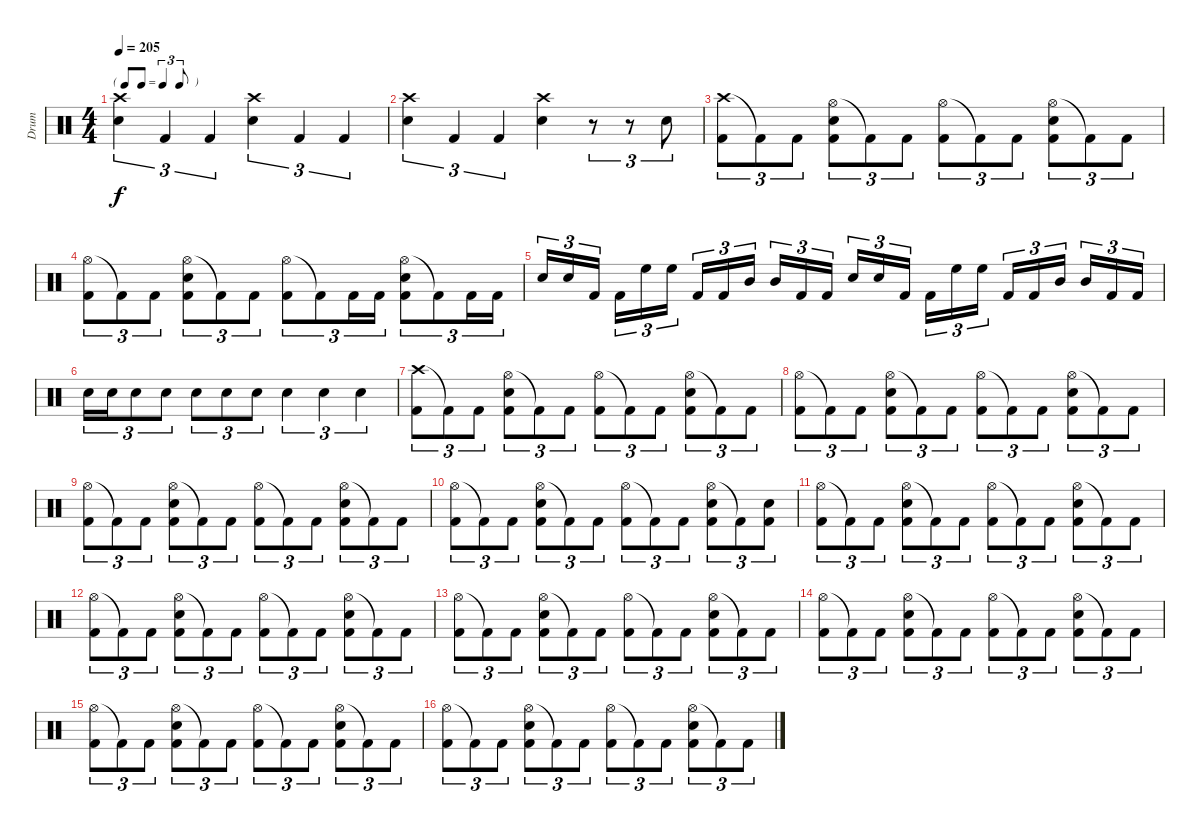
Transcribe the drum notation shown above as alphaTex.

\track ("Drum" "Drum") {instrument percussion}
\staff {score}
\articulation defaults
\ts (4 4)
\tf triplet8th
\tempo 205
\clef neutral
\ks c
("Crash high (hit)" "Snare (hit) 2").4{tu (3 2) dy f} "Kick (hit) 2".4{tu (3 2)} "Kick (hit) 2".4{tu (3 2)} ("Crash high (hit)" "Snare (hit) 2").4{tu (3 2)} "Kick (hit) 2".4{tu (3 2)} "Kick (hit) 2".4{tu (3 2)} |
("Crash high (hit)" "Snare (hit) 2").4{tu (3 2)} "Kick (hit) 2".4{tu (3 2)} "Kick (hit) 2".4{tu (3 2)} ("Crash high (hit)" "Snare (hit) 2").4 r.8{tu (3 2)} r.8{tu (3 2)} "Snare (hit) 2".8{tu (3 2)} |
("Crash high (hit)" "Kick (hit) 2").8{tu (3 2)} "Kick (hit) 2"{t}.8{tu (3 2)} "Kick (hit) 2".8{tu (3 2)} ("Hi-Hat (open)" "Snare (hit) 2" "Kick (hit) 2").8{tu (3 2)} "Kick (hit) 2"{t}.8{tu (3 2)} "Kick (hit) 2".8{tu (3 2)} ("Hi-Hat (open)" "Kick (hit) 2").8{tu (3 2)} "Kick (hit) 2"{t}.8{tu (3 2)} "Kick (hit) 2".8{tu (3 2)} ("Hi-Hat (open)" "Snare (hit) 2" "Kick (hit) 2").8{tu (3 2)} "Kick (hit) 2"{t}.8{tu (3 2)} "Kick (hit) 2".8{tu (3 2)} |
("Hi-Hat (open)" "Kick (hit) 2").8{tu (3 2)} "Kick (hit) 2"{t}.8{tu (3 2)} "Kick (hit) 2".8{tu (3 2)} ("Hi-Hat (open)" "Snare (hit) 2" "Kick (hit) 2").8{tu (3 2)} "Kick (hit) 2"{t}.8{tu (3 2)} "Kick (hit) 2".8{tu (3 2)} ("Hi-Hat (open)" "Kick (hit) 2").8{tu (3 2)} "Kick (hit) 2"{t}.8{tu (3 2)} "Kick (hit) 2".16{tu (3 2)} "Kick (hit) 2".16{tu (3 2)} ("Hi-Hat (open)" "Snare (hit) 2" "Kick (hit) 2").8{tu (3 2)} "Kick (hit) 2"{t}.8{tu (3 2)} "Kick (hit) 2".16{tu (3 2)} "Kick (hit) 2".16{tu (3 2)} |
"Snare (hit) 2".16{tu (3 2)} "Snare (hit) 2".16{tu (3 2)} "Kick (hit) 2".16{tu (3 2)} "Kick (hit) 2".16{tu (3 2)} "High Floor Tom (hit)".16{tu (3 2)} "High Floor Tom (hit)".16{tu (3 2)} "Kick (hit) 2".16{tu (3 2)} "Kick (hit) 2".16{tu (3 2)} "Mid Tom (hit)".16{tu (3 2)} "Mid Tom (hit)".16{tu (3 2)} "Kick (hit) 2".16{tu (3 2)} "Kick (hit) 2".16{tu (3 2)} "Snare (hit) 2".16{tu (3 2)} "Snare (hit) 2".16{tu (3 2)} "Kick (hit) 2".16{tu (3 2)} "Kick (hit) 2".16{tu (3 2)} "High Floor Tom (hit)".16{tu (3 2)} "High Floor Tom (hit)".16{tu (3 2)} "Kick (hit) 2".16{tu (3 2)} "Kick (hit) 2".16{tu (3 2)} "Mid Tom (hit)".16{tu (3 2)} "Mid Tom (hit)".16{tu (3 2)} "Kick (hit) 2".16{tu (3 2)} "Kick (hit) 2".16{tu (3 2)} |
"Snare (hit) 2".16{tu (3 2)} "Snare (hit) 2".16{tu (3 2)} "Snare (hit) 2".8{tu (3 2)} "Snare (hit) 2".8{tu (3 2)} "Snare (hit) 2".8{tu (3 2)} "Snare (hit) 2".8{tu (3 2)} "Snare (hit) 2".8{tu (3 2)} "Snare (hit) 2".4{tu (3 2)} "Snare (hit) 2".4{tu (3 2)} "Snare (hit) 2".4{tu (3 2)} |
("Crash high (hit)" "Kick (hit) 2").8{tu (3 2)} "Kick (hit) 2"{t}.8{tu (3 2)} "Kick (hit) 2".8{tu (3 2)} ("Hi-Hat (open)" "Snare (hit) 2" "Kick (hit) 2").8{tu (3 2)} "Kick (hit) 2"{t}.8{tu (3 2)} "Kick (hit) 2".8{tu (3 2)} ("Hi-Hat (open)" "Kick (hit) 2").8{tu (3 2)} "Kick (hit) 2"{t}.8{tu (3 2)} "Kick (hit) 2".8{tu (3 2)} ("Hi-Hat (open)" "Snare (hit) 2" "Kick (hit) 2").8{tu (3 2)} "Kick (hit) 2"{t}.8{tu (3 2)} "Kick (hit) 2".8{tu (3 2)} |
("Hi-Hat (open)" "Kick (hit) 2").8{tu (3 2)} "Kick (hit) 2"{t}.8{tu (3 2)} "Kick (hit) 2".8{tu (3 2)} ("Hi-Hat (open)" "Snare (hit) 2" "Kick (hit) 2").8{tu (3 2)} "Kick (hit) 2"{t}.8{tu (3 2)} "Kick (hit) 2".8{tu (3 2)} ("Hi-Hat (open)" "Kick (hit) 2").8{tu (3 2)} "Kick (hit) 2"{t}.8{tu (3 2)} "Kick (hit) 2".8{tu (3 2)} ("Hi-Hat (open)" "Snare (hit) 2" "Kick (hit) 2").8{tu (3 2)} "Kick (hit) 2"{t}.8{tu (3 2)} "Kick (hit) 2".8{tu (3 2)} |
("Hi-Hat (open)" "Kick (hit) 2").8{tu (3 2)} "Kick (hit) 2"{t}.8{tu (3 2)} "Kick (hit) 2".8{tu (3 2)} ("Hi-Hat (open)" "Snare (hit) 2" "Kick (hit) 2").8{tu (3 2)} "Kick (hit) 2"{t}.8{tu (3 2)} "Kick (hit) 2".8{tu (3 2)} ("Hi-Hat (open)" "Kick (hit) 2").8{tu (3 2)} "Kick (hit) 2"{t}.8{tu (3 2)} "Kick (hit) 2".8{tu (3 2)} ("Hi-Hat (open)" "Snare (hit) 2" "Kick (hit) 2").8{tu (3 2)} "Kick (hit) 2"{t}.8{tu (3 2)} "Kick (hit) 2".8{tu (3 2)} |
("Hi-Hat (open)" "Kick (hit) 2").8{tu (3 2)} "Kick (hit) 2"{t}.8{tu (3 2)} "Kick (hit) 2".8{tu (3 2)} ("Hi-Hat (open)" "Snare (hit) 2" "Kick (hit) 2").8{tu (3 2)} "Kick (hit) 2"{t}.8{tu (3 2)} "Kick (hit) 2".8{tu (3 2)} ("Hi-Hat (open)" "Kick (hit) 2").8{tu (3 2)} "Kick (hit) 2"{t}.8{tu (3 2)} "Kick (hit) 2".8{tu (3 2)} ("Hi-Hat (open)" "Snare (hit) 2" "Kick (hit) 2").8{tu (3 2)} "Kick (hit) 2"{t}.8{tu (3 2)} ("Snare (hit) 2" "Kick (hit) 2").8{tu (3 2)} |
("Hi-Hat (open)" "Kick (hit) 2").8{tu (3 2)} "Kick (hit) 2"{t}.8{tu (3 2)} "Kick (hit) 2".8{tu (3 2)} ("Hi-Hat (open)" "Snare (hit) 2" "Kick (hit) 2").8{tu (3 2)} "Kick (hit) 2"{t}.8{tu (3 2)} "Kick (hit) 2".8{tu (3 2)} ("Hi-Hat (open)" "Kick (hit) 2").8{tu (3 2)} "Kick (hit) 2"{t}.8{tu (3 2)} "Kick (hit) 2".8{tu (3 2)} ("Hi-Hat (open)" "Snare (hit) 2" "Kick (hit) 2").8{tu (3 2)} "Kick (hit) 2"{t}.8{tu (3 2)} "Kick (hit) 2".8{tu (3 2)} |
("Hi-Hat (open)" "Kick (hit) 2").8{tu (3 2)} "Kick (hit) 2"{t}.8{tu (3 2)} "Kick (hit) 2".8{tu (3 2)} ("Hi-Hat (open)" "Snare (hit) 2" "Kick (hit) 2").8{tu (3 2)} "Kick (hit) 2"{t}.8{tu (3 2)} "Kick (hit) 2".8{tu (3 2)} ("Hi-Hat (open)" "Kick (hit) 2").8{tu (3 2)} "Kick (hit) 2"{t}.8{tu (3 2)} "Kick (hit) 2".8{tu (3 2)} ("Hi-Hat (open)" "Snare (hit) 2" "Kick (hit) 2").8{tu (3 2)} "Kick (hit) 2"{t}.8{tu (3 2)} "Kick (hit) 2".8{tu (3 2)} |
("Hi-Hat (open)" "Kick (hit) 2").8{tu (3 2)} "Kick (hit) 2"{t}.8{tu (3 2)} "Kick (hit) 2".8{tu (3 2)} ("Hi-Hat (open)" "Snare (hit) 2" "Kick (hit) 2").8{tu (3 2)} "Kick (hit) 2"{t}.8{tu (3 2)} "Kick (hit) 2".8{tu (3 2)} ("Hi-Hat (open)" "Kick (hit) 2").8{tu (3 2)} "Kick (hit) 2"{t}.8{tu (3 2)} "Kick (hit) 2".8{tu (3 2)} ("Hi-Hat (open)" "Snare (hit) 2" "Kick (hit) 2").8{tu (3 2)} "Kick (hit) 2"{t}.8{tu (3 2)} "Kick (hit) 2".8{tu (3 2)} |
("Hi-Hat (open)" "Kick (hit) 2").8{tu (3 2)} "Kick (hit) 2"{t}.8{tu (3 2)} "Kick (hit) 2".8{tu (3 2)} ("Hi-Hat (open)" "Snare (hit) 2" "Kick (hit) 2").8{tu (3 2)} "Kick (hit) 2"{t}.8{tu (3 2)} "Kick (hit) 2".8{tu (3 2)} ("Hi-Hat (open)" "Kick (hit) 2").8{tu (3 2)} "Kick (hit) 2"{t}.8{tu (3 2)} "Kick (hit) 2".8{tu (3 2)} ("Hi-Hat (open)" "Snare (hit) 2" "Kick (hit) 2").8{tu (3 2)} "Kick (hit) 2"{t}.8{tu (3 2)} "Kick (hit) 2".8{tu (3 2)} |
("Hi-Hat (open)" "Kick (hit) 2").8{tu (3 2)} "Kick (hit) 2"{t}.8{tu (3 2)} "Kick (hit) 2".8{tu (3 2)} ("Hi-Hat (open)" "Snare (hit) 2" "Kick (hit) 2").8{tu (3 2)} "Kick (hit) 2"{t}.8{tu (3 2)} "Kick (hit) 2".8{tu (3 2)} ("Hi-Hat (open)" "Kick (hit) 2").8{tu (3 2)} "Kick (hit) 2"{t}.8{tu (3 2)} "Kick (hit) 2".8{tu (3 2)} ("Hi-Hat (open)" "Snare (hit) 2" "Kick (hit) 2").8{tu (3 2)} "Kick (hit) 2"{t}.8{tu (3 2)} "Kick (hit) 2".8{tu (3 2)} |
("Hi-Hat (open)" "Kick (hit) 2").8{tu (3 2)} "Kick (hit) 2"{t}.8{tu (3 2)} "Kick (hit) 2".8{tu (3 2)} ("Hi-Hat (open)" "Snare (hit) 2" "Kick (hit) 2").8{tu (3 2)} "Kick (hit) 2"{t}.8{tu (3 2)} "Kick (hit) 2".8{tu (3 2)} ("Hi-Hat (open)" "Kick (hit) 2").8{tu (3 2)} "Kick (hit) 2"{t}.8{tu (3 2)} "Kick (hit) 2".8{tu (3 2)} ("Hi-Hat (open)" "Snare (hit) 2" "Kick (hit) 2").8{tu (3 2)} "Kick (hit) 2"{t}.8{tu (3 2)} "Kick (hit) 2".8{tu (3 2)}
